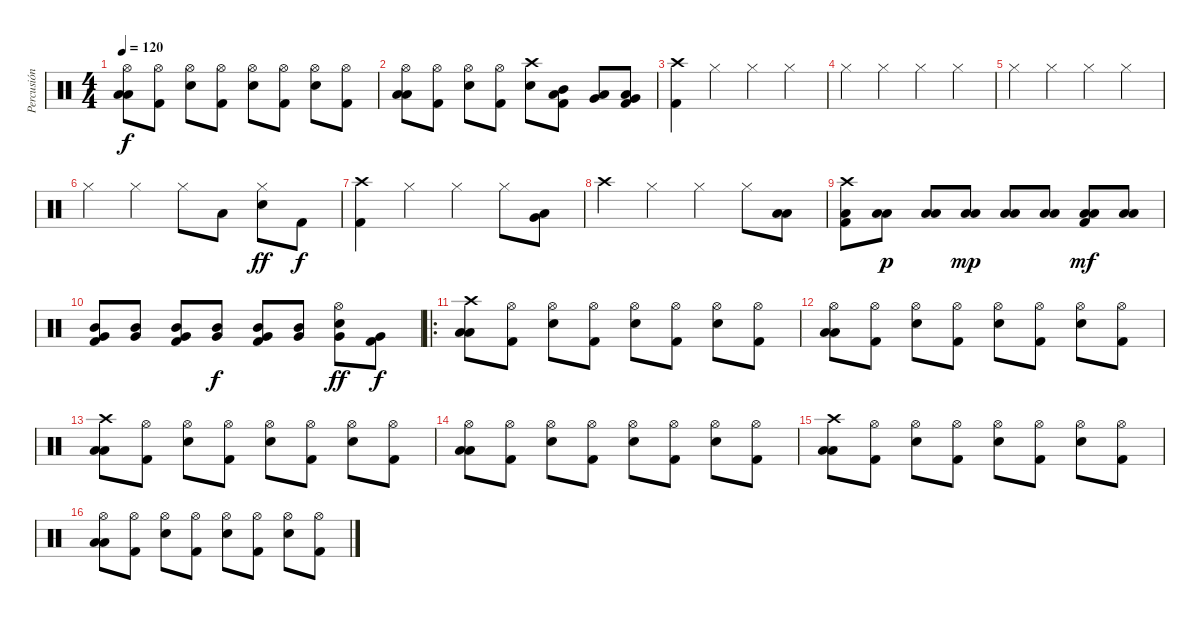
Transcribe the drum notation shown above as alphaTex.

\track ("Percusión" "Percusión") {instrument percussion}
\staff {score}
\articulation defaults
\ts (4 4)
\tempo 120
\clef neutral
\ks c
("Hi-Hat (open)" "Low Tom (hit)" "Low Floor Tom (hit)").8{dy f} ("Hi-Hat (open)" "Kick (hit) 2").8 ("Hi-Hat (open)" "Electric Snare (hit)").8 ("Hi-Hat (open)" "Kick (hit) 2").8 ("Hi-Hat (open)" "Electric Snare (hit)").8 ("Hi-Hat (open)" "Kick (hit) 2").8 ("Hi-Hat (open)" "Electric Snare (hit)").8 ("Hi-Hat (open)" "Kick (hit) 2").8 |
("Hi-Hat (open)" "Low Tom (hit)" "Low Floor Tom (hit)").8 ("Hi-Hat (open)" "Kick (hit) 2").8 ("Hi-Hat (open)" "Electric Snare (hit)").8 ("Hi-Hat (open)" "Kick (hit) 2").8 ("Crash high (hit)" "Electric Snare (hit)").8 ("Mid Tom (hit)" "Low Tom (hit)" "Kick (hit) 2").8 ("Low Tom (hit)" "Very Low Tom (hit)").8 ("Very Low Tom (hit)" "Low Floor Tom (hit)" "Kick (hit) 2").8 |
("Crash high (hit)" "Kick (hit) 2").4 "Hi-Hat (closed)".4 "Hi-Hat (closed)".4 "Hi-Hat (closed)".4 |
"Hi-Hat (closed)".4 "Hi-Hat (closed)".4 "Hi-Hat (closed)".4 "Hi-Hat (closed)".4 |
"Hi-Hat (closed)".4 "Hi-Hat (closed)".4 "Hi-Hat (closed)".4 "Hi-Hat (closed)".4 |
"Hi-Hat (closed)".4 "Hi-Hat (closed)".4 "Hi-Hat (closed)".8 "Low Floor Tom (hit)".8 ("Hi-Hat (closed)" "Electric Snare (hit)").8{dy ff} "Kick (hit) 2".8{dy f} |
("Crash high (hit)" "Kick (hit) 2").4 "Hi-Hat (closed)".4 "Hi-Hat (closed)".4 "Hi-Hat (closed)".8 ("Very Low Tom (hit)" "Low Floor Tom (hit)").8 |
"Crash high (hit)".4 "Hi-Hat (closed)".4 "Hi-Hat (closed)".4 "Hi-Hat (closed)".8 ("Low Tom (hit)" "Low Floor Tom (hit)").8 |
("Crash high (hit)" "Low Floor Tom (hit)" "Kick (hit) 2").8 ("Low Tom (hit)" "Low Floor Tom (hit)").8{dy p} ("Low Tom (hit)" "Low Floor Tom (hit)").8 ("Low Tom (hit)" "Low Floor Tom (hit)").8{dy mp} ("Low Tom (hit)" "Low Floor Tom (hit)").8 ("Low Tom (hit)" "Low Floor Tom (hit)").8 ("Low Tom (hit)" "Low Floor Tom (hit)" "Kick (hit) 2").8{dy mf} ("Low Tom (hit)" "Low Floor Tom (hit)").8 |
("Mid Tom (hit)" "Very Low Tom (hit)" "Kick (hit) 2").8 ("Mid Tom (hit)" "Very Low Tom (hit)").8 ("Mid Tom (hit)" "Very Low Tom (hit)" "Kick (hit) 2").8 ("Mid Tom (hit)" "Very Low Tom (hit)").8{dy f} ("Mid Tom (hit)" "Very Low Tom (hit)" "Kick (hit) 2").8 ("Mid Tom (hit)" "Very Low Tom (hit)").8 ("Hi-Hat (open)" "Electric Snare (hit)" "Very Low Tom (hit)").8{dy ff} ("Very Low Tom (hit)" "Kick (hit) 2").8{dy f} |
\ro
("Crash high (hit)" "Low Tom (hit)" "Low Floor Tom (hit)").8 ("Hi-Hat (open)" "Kick (hit) 2").8 ("Hi-Hat (open)" "Electric Snare (hit)").8 ("Hi-Hat (open)" "Kick (hit) 2").8 ("Hi-Hat (open)" "Electric Snare (hit)").8 ("Hi-Hat (open)" "Kick (hit) 2").8 ("Hi-Hat (open)" "Electric Snare (hit)").8 ("Hi-Hat (open)" "Kick (hit) 2").8 |
("Hi-Hat (open)" "Low Tom (hit)" "Low Floor Tom (hit)").8 ("Hi-Hat (open)" "Kick (hit) 2").8 ("Hi-Hat (open)" "Electric Snare (hit)").8 ("Hi-Hat (open)" "Kick (hit) 2").8 ("Hi-Hat (open)" "Electric Snare (hit)").8 ("Hi-Hat (open)" "Kick (hit) 2").8 ("Hi-Hat (open)" "Electric Snare (hit)").8 ("Hi-Hat (open)" "Kick (hit) 2").8 |
("Crash high (hit)" "Low Tom (hit)" "Low Floor Tom (hit)").8 ("Hi-Hat (open)" "Kick (hit) 2").8 ("Hi-Hat (open)" "Electric Snare (hit)").8 ("Hi-Hat (open)" "Kick (hit) 2").8 ("Hi-Hat (open)" "Electric Snare (hit)").8 ("Hi-Hat (open)" "Kick (hit) 2").8 ("Hi-Hat (open)" "Electric Snare (hit)").8 ("Hi-Hat (open)" "Kick (hit) 2").8 |
("Hi-Hat (open)" "Low Tom (hit)" "Low Floor Tom (hit)").8 ("Hi-Hat (open)" "Kick (hit) 2").8 ("Hi-Hat (open)" "Electric Snare (hit)").8 ("Hi-Hat (open)" "Kick (hit) 2").8 ("Hi-Hat (open)" "Electric Snare (hit)").8 ("Hi-Hat (open)" "Kick (hit) 2").8 ("Hi-Hat (open)" "Electric Snare (hit)").8 ("Hi-Hat (open)" "Kick (hit) 2").8 |
("Crash high (hit)" "Low Tom (hit)" "Low Floor Tom (hit)").8 ("Hi-Hat (open)" "Kick (hit) 2").8 ("Hi-Hat (open)" "Electric Snare (hit)").8 ("Hi-Hat (open)" "Kick (hit) 2").8 ("Hi-Hat (open)" "Electric Snare (hit)").8 ("Hi-Hat (open)" "Kick (hit) 2").8 ("Hi-Hat (open)" "Electric Snare (hit)").8 ("Hi-Hat (open)" "Kick (hit) 2").8 |
("Hi-Hat (open)" "Low Tom (hit)" "Low Floor Tom (hit)").8 ("Hi-Hat (open)" "Kick (hit) 2").8 ("Hi-Hat (open)" "Electric Snare (hit)").8 ("Hi-Hat (open)" "Kick (hit) 2").8 ("Hi-Hat (open)" "Electric Snare (hit)").8 ("Hi-Hat (open)" "Kick (hit) 2").8 ("Hi-Hat (open)" "Electric Snare (hit)").8 ("Hi-Hat (open)" "Kick (hit) 2").8
